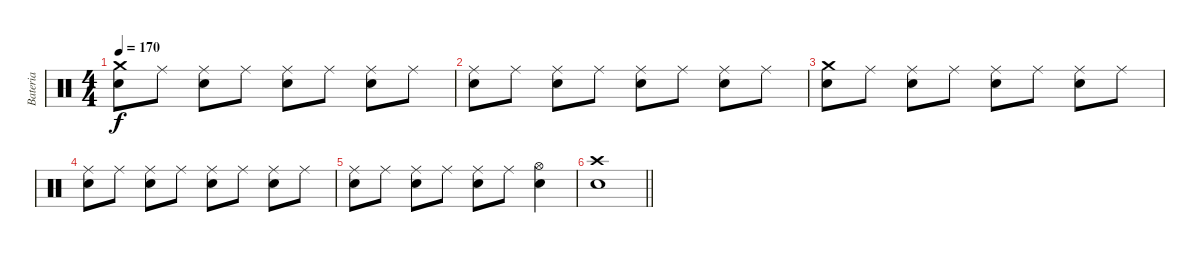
\track ("Bateria" "Bateria") {instrument percussion}
\staff {score}
\articulation defaults
\ts (4 4)
\tempo 170
\clef neutral
\ks c
("Crash medium (hit)" "Snare (hit) 2").8{dy f} "Ride (middle)".8 ("Ride (middle)" "Snare (hit) 2").8 "Ride (middle)".8 ("Ride (middle)" "Snare (hit) 2").8 "Ride (middle)".8 ("Ride (middle)" "Snare (hit) 2").8 "Ride (middle)".8 |
("Ride (middle)" "Snare (hit) 2").8 "Ride (middle)".8 ("Ride (middle)" "Snare (hit) 2").8 "Ride (middle)".8 ("Ride (middle)" "Snare (hit) 2").8 "Ride (middle)".8 ("Ride (middle)" "Snare (hit) 2").8 "Ride (middle)".8 |
("Crash medium (hit)" "Snare (hit) 2").8 "Ride (middle)".8 ("Ride (middle)" "Snare (hit) 2").8 "Ride (middle)".8 ("Ride (middle)" "Snare (hit) 2").8 "Ride (middle)".8 ("Ride (middle)" "Snare (hit) 2").8 "Ride (middle)".8 |
("Ride (middle)" "Snare (hit) 2").8 "Ride (middle)".8 ("Ride (middle)" "Snare (hit) 2").8 "Ride (middle)".8 ("Ride (middle)" "Snare (hit) 2").8 "Ride (middle)".8 ("Ride (middle)" "Snare (hit) 2").8 "Ride (middle)".8 |
("Ride (middle)" "Snare (hit) 2").8 "Ride (middle)".8 ("Ride (middle)" "Snare (hit) 2").8 "Ride (middle)".8 ("Ride (middle)" "Snare (hit) 2").8 "Ride (middle)".8 ("Hi-Hat (open)" "Snare (hit) 2").4 |
\barLineRight lightlight
("Crash high (hit)" "Snare (hit) 2").1
